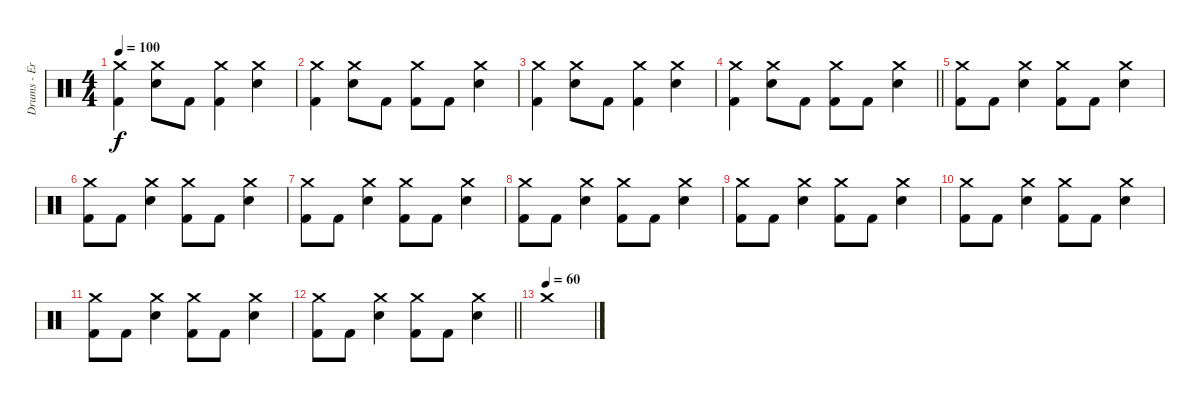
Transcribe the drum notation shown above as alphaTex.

\track ("Drums - Eric Young" "Drums - Er") {instrument percussion}
\staff {score}
\articulation defaults
\ts (4 4)
\tempo 100
\clef neutral
\ks c
("Crash medium (hit)" "Kick (hit) 2").4{dy f} ("Crash medium (hit)" "Electric Snare (hit)").8 "Kick (hit) 2".8 ("Crash medium (hit)" "Kick (hit) 2").4 ("Crash medium (hit)" "Electric Snare (hit)").4 |
("Crash medium (hit)" "Kick (hit) 2").4 ("Crash medium (hit)" "Electric Snare (hit)").8 "Kick (hit) 2".8 ("Crash medium (hit)" "Kick (hit) 2").8 "Kick (hit) 2".8 ("Crash medium (hit)" "Electric Snare (hit)").4 |
("Crash medium (hit)" "Kick (hit) 2").4 ("Crash medium (hit)" "Electric Snare (hit)").8 "Kick (hit) 2".8 ("Crash medium (hit)" "Kick (hit) 2").4 ("Crash medium (hit)" "Electric Snare (hit)").4 |
\barLineRight lightlight
("Crash medium (hit)" "Kick (hit) 2").4 ("Crash medium (hit)" "Electric Snare (hit)").8 "Kick (hit) 2".8 ("Crash medium (hit)" "Kick (hit) 2").8 "Kick (hit) 2".8 ("Crash medium (hit)" "Electric Snare (hit)").4 |
("Crash medium (hit)" "Kick (hit) 2").8 "Kick (hit) 2".8 ("Crash medium (hit)" "Electric Snare (hit)").4 ("Crash medium (hit)" "Kick (hit) 2").8 "Kick (hit) 2".8 ("Crash medium (hit)" "Electric Snare (hit)").4 |
("Crash medium (hit)" "Kick (hit) 2").8 "Kick (hit) 2".8 ("Crash medium (hit)" "Electric Snare (hit)").4 ("Crash medium (hit)" "Kick (hit) 2").8 "Kick (hit) 2".8 ("Crash medium (hit)" "Electric Snare (hit)").4 |
("Crash medium (hit)" "Kick (hit) 2").8 "Kick (hit) 2".8 ("Crash medium (hit)" "Electric Snare (hit)").4 ("Crash medium (hit)" "Kick (hit) 2").8 "Kick (hit) 2".8 ("Crash medium (hit)" "Electric Snare (hit)").4 |
("Crash medium (hit)" "Kick (hit) 2").8 "Kick (hit) 2".8 ("Crash medium (hit)" "Electric Snare (hit)").4 ("Crash medium (hit)" "Kick (hit) 2").8 "Kick (hit) 2".8 ("Crash medium (hit)" "Electric Snare (hit)").4 |
("Crash medium (hit)" "Kick (hit) 2").8 "Kick (hit) 2".8 ("Crash medium (hit)" "Electric Snare (hit)").4 ("Crash medium (hit)" "Kick (hit) 2").8 "Kick (hit) 2".8 ("Crash medium (hit)" "Electric Snare (hit)").4 |
("Crash medium (hit)" "Kick (hit) 2").8 "Kick (hit) 2".8 ("Crash medium (hit)" "Electric Snare (hit)").4 ("Crash medium (hit)" "Kick (hit) 2").8 "Kick (hit) 2".8 ("Crash medium (hit)" "Electric Snare (hit)").4 |
("Crash medium (hit)" "Kick (hit) 2").8 "Kick (hit) 2".8 ("Crash medium (hit)" "Electric Snare (hit)").4 ("Crash medium (hit)" "Kick (hit) 2").8 "Kick (hit) 2".8 ("Crash medium (hit)" "Electric Snare (hit)").4 |
\barLineRight lightlight
("Crash medium (hit)" "Kick (hit) 2").8 "Kick (hit) 2".8 ("Crash medium (hit)" "Electric Snare (hit)").4 ("Crash medium (hit)" "Kick (hit) 2").8 "Kick (hit) 2".8 ("Crash medium (hit)" "Electric Snare (hit)").4 |
\tempo (60)
"Crash medium (hit)".1
